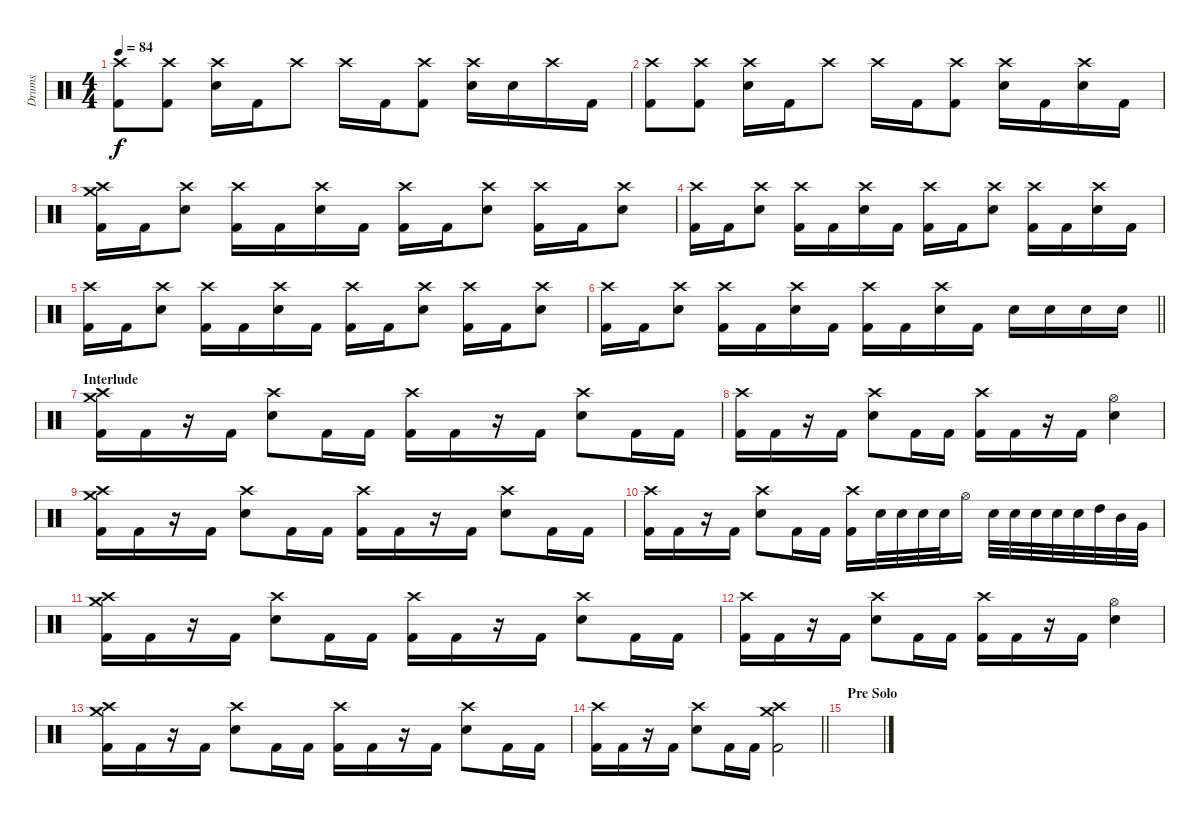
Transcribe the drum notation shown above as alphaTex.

\track ("Drums" "Drums") {instrument percussion}
\staff {score}
\articulation defaults
\ts (4 4)
\tempo 84
\clef neutral
\ks c
("Crash high (hit)" "Kick (hit) 2").8{dy f} ("Crash high (hit)" "Kick (hit) 2").8 ("Crash high (hit)" "Electric Snare (hit)").16 "Kick (hit) 2".16 "Crash high (hit)".8 "Crash high (hit)".16 "Kick (hit) 2".16 ("Crash high (hit)" "Kick (hit) 2").8 ("Crash high (hit)" "Electric Snare (hit)").16 "Electric Snare (hit)".16 "Crash high (hit)".16 "Kick (hit) 2".16 |
("Crash high (hit)" "Kick (hit) 2").8 ("Crash high (hit)" "Kick (hit) 2").8 ("Crash high (hit)" "Electric Snare (hit)").16 "Kick (hit) 2".16 "Crash high (hit)".8 "Crash high (hit)".16 "Kick (hit) 2".16 ("Crash high (hit)" "Kick (hit) 2").8 ("Crash high (hit)" "Electric Snare (hit)").16 "Kick (hit) 2".16 ("Crash high (hit)" "Electric Snare (hit)").16 "Kick (hit) 2".16 |
("Crash medium (hit)" "Crash high (hit)" "Kick (hit) 2").16 "Kick (hit) 2".16 ("Crash high (hit)" "Electric Snare (hit)").8 ("Crash high (hit)" "Kick (hit) 2").16 "Kick (hit) 2".16 ("Crash high (hit)" "Electric Snare (hit)").16 "Kick (hit) 2".16 ("Crash high (hit)" "Kick (hit) 2").16 "Kick (hit) 2".16 ("Crash high (hit)" "Electric Snare (hit)").8 ("Crash high (hit)" "Kick (hit) 2").16 "Kick (hit) 2".16 ("Crash high (hit)" "Electric Snare (hit)").8 |
("Crash high (hit)" "Kick (hit) 2").16 "Kick (hit) 2".16 ("Crash high (hit)" "Electric Snare (hit)").8 ("Crash high (hit)" "Kick (hit) 2").16 "Kick (hit) 2".16 ("Crash high (hit)" "Electric Snare (hit)").16 "Kick (hit) 2".16 ("Crash high (hit)" "Kick (hit) 2").16 "Kick (hit) 2".16 ("Crash high (hit)" "Electric Snare (hit)").8 ("Crash high (hit)" "Kick (hit) 2").16 "Kick (hit) 2".16 ("Crash high (hit)" "Electric Snare (hit)").16 "Kick (hit) 2".16 |
("Crash high (hit)" "Kick (hit) 2").16 "Kick (hit) 2".16 ("Crash high (hit)" "Electric Snare (hit)").8 ("Crash high (hit)" "Kick (hit) 2").16 "Kick (hit) 2".16 ("Crash high (hit)" "Electric Snare (hit)").16 "Kick (hit) 2".16 ("Crash high (hit)" "Kick (hit) 2").16 "Kick (hit) 2".16 ("Crash high (hit)" "Electric Snare (hit)").8 ("Crash high (hit)" "Kick (hit) 2").16 "Kick (hit) 2".16 ("Crash high (hit)" "Electric Snare (hit)").8 |
\barLineRight lightlight
("Crash high (hit)" "Kick (hit) 2").16 "Kick (hit) 2".16 ("Crash high (hit)" "Electric Snare (hit)").8 ("Crash high (hit)" "Kick (hit) 2").16 "Kick (hit) 2".16 ("Crash high (hit)" "Electric Snare (hit)").16 "Kick (hit) 2".16 ("Crash high (hit)" "Kick (hit) 2").16 "Kick (hit) 2".16 ("Crash high (hit)" "Electric Snare (hit)").16 "Kick (hit) 2".16 "Electric Snare (hit)".16 "Electric Snare (hit)".16 "Electric Snare (hit)".16 "Electric Snare (hit)".16 |
\section ("" "Interlude")
("Crash medium (hit)" "Crash high (hit)" "Kick (hit) 2").16 "Kick (hit) 2".16 r.16 "Kick (hit) 2".16 ("Crash high (hit)" "Electric Snare (hit)").8 "Kick (hit) 2".16 "Kick (hit) 2".16 ("Crash high (hit)" "Kick (hit) 2").16 "Kick (hit) 2".16 r.16 "Kick (hit) 2".16 ("Crash high (hit)" "Electric Snare (hit)").8 "Kick (hit) 2".16 "Kick (hit) 2".16 |
("Crash high (hit)" "Kick (hit) 2").16 "Kick (hit) 2".16 r.16 "Kick (hit) 2".16 ("Crash high (hit)" "Electric Snare (hit)").8 "Kick (hit) 2".16 "Kick (hit) 2".16 ("Crash high (hit)" "Kick (hit) 2").16 "Kick (hit) 2".16 r.16 "Kick (hit) 2".16 ("Hi-Hat (open)" "Electric Snare (hit)").4 |
("Crash medium (hit)" "Crash high (hit)" "Kick (hit) 2").16 "Kick (hit) 2".16 r.16 "Kick (hit) 2".16 ("Crash high (hit)" "Electric Snare (hit)").8 "Kick (hit) 2".16 "Kick (hit) 2".16 ("Crash high (hit)" "Kick (hit) 2").16 "Kick (hit) 2".16 r.16 "Kick (hit) 2".16 ("Crash high (hit)" "Electric Snare (hit)").8 "Kick (hit) 2".16 "Kick (hit) 2".16 |
("Crash high (hit)" "Kick (hit) 2").16 "Kick (hit) 2".16 r.16 "Kick (hit) 2".16 ("Crash high (hit)" "Electric Snare (hit)").8 "Kick (hit) 2".16 "Kick (hit) 2".16 ("Crash high (hit)" "Kick (hit) 2").16 "Electric Snare (hit)".32 "Electric Snare (hit)".32 "Electric Snare (hit)".32 "Electric Snare (hit)".32 "Hi-Hat (open)".16 "Electric Snare (hit)".32 "Electric Snare (hit)".32 "Electric Snare (hit)".32 "Electric Snare (hit)".32 "Electric Snare (hit)".32 "High Tom (hit)".32 "Mid Tom (hit)".32 "Very Low Tom (hit)".32 |
("Crash medium (hit)" "Crash high (hit)" "Kick (hit) 2").16 "Kick (hit) 2".16 r.16 "Kick (hit) 2".16 ("Crash high (hit)" "Electric Snare (hit)").8 "Kick (hit) 2".16 "Kick (hit) 2".16 ("Crash high (hit)" "Kick (hit) 2").16 "Kick (hit) 2".16 r.16 "Kick (hit) 2".16 ("Crash high (hit)" "Electric Snare (hit)").8 "Kick (hit) 2".16 "Kick (hit) 2".16 |
("Crash high (hit)" "Kick (hit) 2").16 "Kick (hit) 2".16 r.16 "Kick (hit) 2".16 ("Crash high (hit)" "Electric Snare (hit)").8 "Kick (hit) 2".16 "Kick (hit) 2".16 ("Crash high (hit)" "Kick (hit) 2").16 "Kick (hit) 2".16 r.16 "Kick (hit) 2".16 ("Hi-Hat (open)" "Electric Snare (hit)").4 |
("Crash medium (hit)" "Crash high (hit)" "Kick (hit) 2").16 "Kick (hit) 2".16 r.16 "Kick (hit) 2".16 ("Crash high (hit)" "Electric Snare (hit)").8 "Kick (hit) 2".16 "Kick (hit) 2".16 ("Crash high (hit)" "Kick (hit) 2").16 "Kick (hit) 2".16 r.16 "Kick (hit) 2".16 ("Crash high (hit)" "Electric Snare (hit)").8 "Kick (hit) 2".16 "Kick (hit) 2".16 |
\barLineRight lightlight
("Crash high (hit)" "Kick (hit) 2").16 "Kick (hit) 2".16 r.16 "Kick (hit) 2".16 ("Crash high (hit)" "Electric Snare (hit)").8 "Kick (hit) 2".16 "Kick (hit) 2".16 ("Crash high (hit)" "Crash medium (hit)" "Kick (hit) 2").2 |
\section ("" "Pre Solo")
